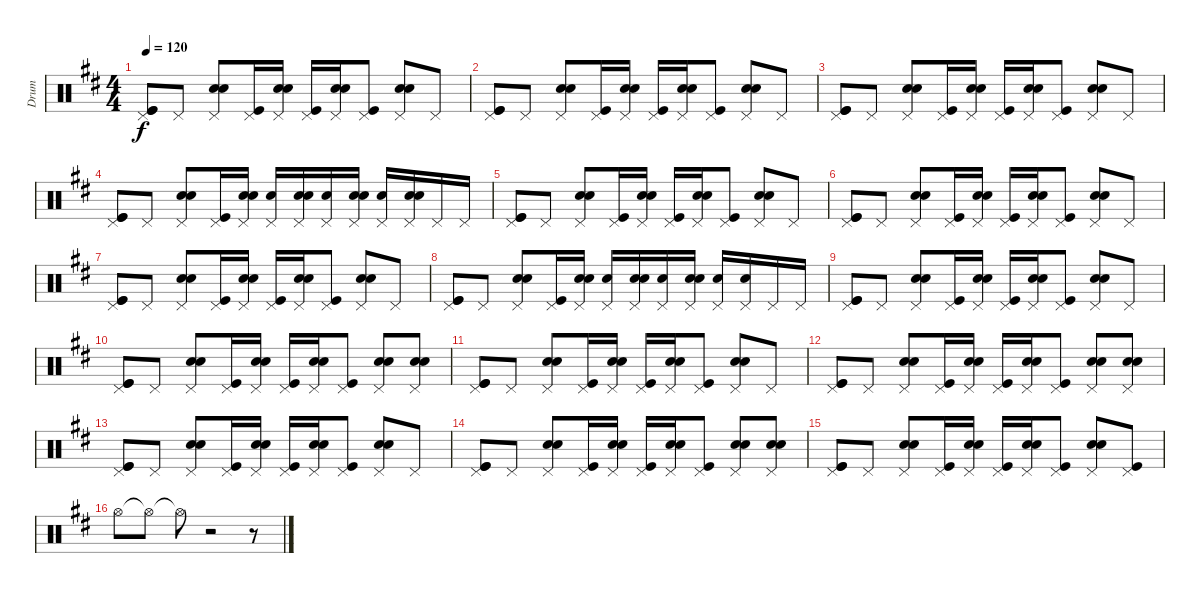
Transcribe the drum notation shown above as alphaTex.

\track ("Drum" "Drum") {instrument percussion}
\staff {score}
\articulation defaults
\ts (4 4)
\tempo 120
\clef neutral
\ks d
("Pedal Hi-Hat (hit)" "Kick (hit)" "Kick (hit)").8{dy f} "Pedal Hi-Hat (hit)".8 ("Pedal Hi-Hat (hit)" "Electric Snare (hit)" "Electric Snare (hit)").8 ("Pedal Hi-Hat (hit)" "Kick (hit)").16 ("Pedal Hi-Hat (hit)" "Electric Snare (hit)" "Electric Snare (hit)").16 ("Pedal Hi-Hat (hit)" "Kick (hit)").16 ("Pedal Hi-Hat (hit)" "Electric Snare (hit)" "Electric Snare (hit)").16 ("Pedal Hi-Hat (hit)" "Kick (hit)").8 ("Pedal Hi-Hat (hit)" "Electric Snare (hit)" "Electric Snare (hit)").8 "Pedal Hi-Hat (hit)".8 |
("Pedal Hi-Hat (hit)" "Kick (hit)" "Kick (hit)").8 "Pedal Hi-Hat (hit)".8 ("Pedal Hi-Hat (hit)" "Electric Snare (hit)" "Electric Snare (hit)").8 ("Pedal Hi-Hat (hit)" "Kick (hit)").16 ("Pedal Hi-Hat (hit)" "Electric Snare (hit)" "Electric Snare (hit)").16 ("Pedal Hi-Hat (hit)" "Kick (hit)").16 ("Pedal Hi-Hat (hit)" "Electric Snare (hit)" "Electric Snare (hit)").16 ("Pedal Hi-Hat (hit)" "Kick (hit)").8 ("Pedal Hi-Hat (hit)" "Electric Snare (hit)" "Electric Snare (hit)").8 "Pedal Hi-Hat (hit)".8 |
("Pedal Hi-Hat (hit)" "Kick (hit)" "Kick (hit)").8 "Pedal Hi-Hat (hit)".8 ("Pedal Hi-Hat (hit)" "Electric Snare (hit)" "Electric Snare (hit)").8 ("Pedal Hi-Hat (hit)" "Kick (hit)").16 ("Pedal Hi-Hat (hit)" "Electric Snare (hit)" "Electric Snare (hit)").16 ("Pedal Hi-Hat (hit)" "Kick (hit)").16 ("Pedal Hi-Hat (hit)" "Electric Snare (hit)" "Electric Snare (hit)").16 ("Pedal Hi-Hat (hit)" "Kick (hit)").8 ("Pedal Hi-Hat (hit)" "Electric Snare (hit)" "Electric Snare (hit)").8 "Pedal Hi-Hat (hit)".8 |
("Pedal Hi-Hat (hit)" "Kick (hit)" "Kick (hit)").8 "Pedal Hi-Hat (hit)".8 ("Pedal Hi-Hat (hit)" "Electric Snare (hit)" "Electric Snare (hit)").8 ("Pedal Hi-Hat (hit)" "Kick (hit)").16 ("Pedal Hi-Hat (hit)" "Electric Snare (hit)" "Electric Snare (hit)").16 ("Pedal Hi-Hat (hit)" "Electric Snare (hit)").16 ("Pedal Hi-Hat (hit)" "Electric Snare (hit)" "Electric Snare (hit)").16 ("Pedal Hi-Hat (hit)" "Electric Snare (hit)").16 ("Pedal Hi-Hat (hit)" "Electric Snare (hit)" "Electric Snare (hit)").16 ("Pedal Hi-Hat (hit)" "Electric Snare (hit)").16 ("Pedal Hi-Hat (hit)" "Electric Snare (hit)" "Electric Snare (hit)").16 "Pedal Hi-Hat (hit)".16 "Pedal Hi-Hat (hit)".16 |
("Pedal Hi-Hat (hit)" "Kick (hit)" "Kick (hit)").8 "Pedal Hi-Hat (hit)".8 ("Pedal Hi-Hat (hit)" "Electric Snare (hit)" "Electric Snare (hit)").8 ("Pedal Hi-Hat (hit)" "Kick (hit)").16 ("Pedal Hi-Hat (hit)" "Electric Snare (hit)" "Electric Snare (hit)").16 ("Pedal Hi-Hat (hit)" "Kick (hit)").16 ("Pedal Hi-Hat (hit)" "Electric Snare (hit)" "Electric Snare (hit)").16 ("Pedal Hi-Hat (hit)" "Kick (hit)").8 ("Pedal Hi-Hat (hit)" "Electric Snare (hit)" "Electric Snare (hit)").8 "Pedal Hi-Hat (hit)".8 |
("Pedal Hi-Hat (hit)" "Kick (hit)" "Kick (hit)").8 "Pedal Hi-Hat (hit)".8 ("Pedal Hi-Hat (hit)" "Electric Snare (hit)" "Electric Snare (hit)").8 ("Pedal Hi-Hat (hit)" "Kick (hit)").16 ("Pedal Hi-Hat (hit)" "Electric Snare (hit)" "Electric Snare (hit)").16 ("Pedal Hi-Hat (hit)" "Kick (hit)").16 ("Pedal Hi-Hat (hit)" "Electric Snare (hit)" "Electric Snare (hit)").16 ("Pedal Hi-Hat (hit)" "Kick (hit)").8 ("Pedal Hi-Hat (hit)" "Electric Snare (hit)" "Electric Snare (hit)").8 "Pedal Hi-Hat (hit)".8 |
("Pedal Hi-Hat (hit)" "Kick (hit)" "Kick (hit)").8 "Pedal Hi-Hat (hit)".8 ("Pedal Hi-Hat (hit)" "Electric Snare (hit)" "Electric Snare (hit)").8 ("Pedal Hi-Hat (hit)" "Kick (hit)").16 ("Pedal Hi-Hat (hit)" "Electric Snare (hit)" "Electric Snare (hit)").16 ("Pedal Hi-Hat (hit)" "Kick (hit)").16 ("Pedal Hi-Hat (hit)" "Electric Snare (hit)" "Electric Snare (hit)").16 ("Pedal Hi-Hat (hit)" "Kick (hit)").8 ("Pedal Hi-Hat (hit)" "Electric Snare (hit)" "Electric Snare (hit)").8 "Pedal Hi-Hat (hit)".8 |
("Pedal Hi-Hat (hit)" "Kick (hit)" "Kick (hit)").8 "Pedal Hi-Hat (hit)".8 ("Pedal Hi-Hat (hit)" "Electric Snare (hit)" "Electric Snare (hit)").8 ("Pedal Hi-Hat (hit)" "Kick (hit)").16 ("Pedal Hi-Hat (hit)" "Electric Snare (hit)" "Electric Snare (hit)").16 ("Pedal Hi-Hat (hit)" "Electric Snare (hit)").16 ("Pedal Hi-Hat (hit)" "Electric Snare (hit)" "Electric Snare (hit)").16 ("Pedal Hi-Hat (hit)" "Electric Snare (hit)").16 ("Pedal Hi-Hat (hit)" "Electric Snare (hit)" "Electric Snare (hit)").16 ("Pedal Hi-Hat (hit)" "Electric Snare (hit)").16 ("Pedal Hi-Hat (hit)" "Electric Snare (hit)").16 "Pedal Hi-Hat (hit)".16 "Pedal Hi-Hat (hit)".16 |
("Pedal Hi-Hat (hit)" "Kick (hit)" "Kick (hit)").8 "Pedal Hi-Hat (hit)".8 ("Pedal Hi-Hat (hit)" "Electric Snare (hit)" "Electric Snare (hit)").8 ("Pedal Hi-Hat (hit)" "Kick (hit)").16 ("Pedal Hi-Hat (hit)" "Electric Snare (hit)" "Electric Snare (hit)").16 ("Pedal Hi-Hat (hit)" "Kick (hit)").16 ("Pedal Hi-Hat (hit)" "Electric Snare (hit)" "Electric Snare (hit)").16 ("Pedal Hi-Hat (hit)" "Kick (hit)").8 ("Pedal Hi-Hat (hit)" "Electric Snare (hit)" "Electric Snare (hit)").8 "Pedal Hi-Hat (hit)".8 |
("Pedal Hi-Hat (hit)" "Kick (hit)" "Kick (hit)").8 "Pedal Hi-Hat (hit)".8 ("Pedal Hi-Hat (hit)" "Electric Snare (hit)" "Electric Snare (hit)").8 ("Pedal Hi-Hat (hit)" "Kick (hit)").16 ("Pedal Hi-Hat (hit)" "Electric Snare (hit)" "Electric Snare (hit)").16 ("Pedal Hi-Hat (hit)" "Kick (hit)").16 ("Pedal Hi-Hat (hit)" "Electric Snare (hit)" "Electric Snare (hit)").16 ("Pedal Hi-Hat (hit)" "Kick (hit)").8 ("Pedal Hi-Hat (hit)" "Electric Snare (hit)" "Electric Snare (hit)").8 ("Pedal Hi-Hat (hit)" "Electric Snare (hit)" "Electric Snare (hit)").8 |
("Pedal Hi-Hat (hit)" "Kick (hit)" "Kick (hit)").8 "Pedal Hi-Hat (hit)".8 ("Pedal Hi-Hat (hit)" "Electric Snare (hit)" "Electric Snare (hit)").8 ("Pedal Hi-Hat (hit)" "Kick (hit)").16 ("Pedal Hi-Hat (hit)" "Electric Snare (hit)" "Electric Snare (hit)").16 ("Pedal Hi-Hat (hit)" "Kick (hit)").16 ("Pedal Hi-Hat (hit)" "Electric Snare (hit)" "Electric Snare (hit)").16 ("Pedal Hi-Hat (hit)" "Kick (hit)").8 ("Pedal Hi-Hat (hit)" "Electric Snare (hit)" "Electric Snare (hit)").8 "Pedal Hi-Hat (hit)".8 |
("Pedal Hi-Hat (hit)" "Kick (hit)" "Kick (hit)").8 "Pedal Hi-Hat (hit)".8 ("Pedal Hi-Hat (hit)" "Electric Snare (hit)" "Electric Snare (hit)").8 ("Pedal Hi-Hat (hit)" "Kick (hit)").16 ("Pedal Hi-Hat (hit)" "Electric Snare (hit)" "Electric Snare (hit)").16 ("Pedal Hi-Hat (hit)" "Kick (hit)").16 ("Pedal Hi-Hat (hit)" "Electric Snare (hit)" "Electric Snare (hit)").16 ("Pedal Hi-Hat (hit)" "Kick (hit)").8 ("Pedal Hi-Hat (hit)" "Electric Snare (hit)" "Electric Snare (hit)").8 ("Pedal Hi-Hat (hit)" "Electric Snare (hit)" "Electric Snare (hit)").8 |
("Pedal Hi-Hat (hit)" "Kick (hit)" "Kick (hit)").8 "Pedal Hi-Hat (hit)".8 ("Pedal Hi-Hat (hit)" "Electric Snare (hit)" "Electric Snare (hit)").8 ("Pedal Hi-Hat (hit)" "Kick (hit)").16 ("Pedal Hi-Hat (hit)" "Electric Snare (hit)" "Electric Snare (hit)").16 ("Pedal Hi-Hat (hit)" "Kick (hit)").16 ("Pedal Hi-Hat (hit)" "Electric Snare (hit)" "Electric Snare (hit)").16 ("Pedal Hi-Hat (hit)" "Kick (hit)").8 ("Pedal Hi-Hat (hit)" "Electric Snare (hit)" "Electric Snare (hit)").8 "Pedal Hi-Hat (hit)".8 |
("Pedal Hi-Hat (hit)" "Kick (hit)" "Kick (hit)").8 "Pedal Hi-Hat (hit)".8 ("Pedal Hi-Hat (hit)" "Electric Snare (hit)" "Electric Snare (hit)").8 ("Pedal Hi-Hat (hit)" "Kick (hit)").16 ("Pedal Hi-Hat (hit)" "Electric Snare (hit)" "Electric Snare (hit)").16 ("Pedal Hi-Hat (hit)" "Kick (hit)").16 ("Pedal Hi-Hat (hit)" "Electric Snare (hit)" "Electric Snare (hit)").16 ("Pedal Hi-Hat (hit)" "Kick (hit)").8 ("Pedal Hi-Hat (hit)" "Electric Snare (hit)" "Electric Snare (hit)").8 ("Pedal Hi-Hat (hit)" "Electric Snare (hit)" "Electric Snare (hit)").8 |
("Pedal Hi-Hat (hit)" "Kick (hit)" "Kick (hit)").8 "Pedal Hi-Hat (hit)".8 ("Pedal Hi-Hat (hit)" "Electric Snare (hit)" "Electric Snare (hit)").8 ("Pedal Hi-Hat (hit)" "Kick (hit)").16 ("Pedal Hi-Hat (hit)" "Electric Snare (hit)" "Electric Snare (hit)").16 ("Pedal Hi-Hat (hit)" "Kick (hit)").16 ("Pedal Hi-Hat (hit)" "Electric Snare (hit)" "Electric Snare (hit)").16 ("Pedal Hi-Hat (hit)" "Kick (hit)").8 ("Pedal Hi-Hat (hit)" "Electric Snare (hit)" "Electric Snare (hit)").8 ("Pedal Hi-Hat (hit)" "Kick (hit)").8 |
"Hi-Hat (open)".8 "Hi-Hat (open)"{t}.8 "Hi-Hat (open)"{t}.8 r.2 r.8
